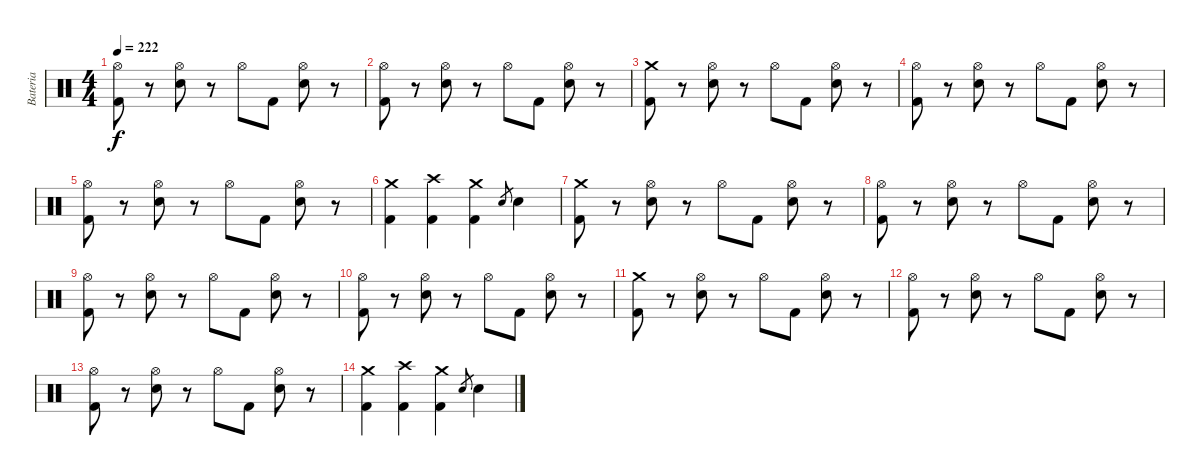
\track ("Bateria" "Bateria") {instrument percussion}
\staff {score}
\articulation defaults
\ts (4 4)
\tempo 222
\clef neutral
\ks c
("Hi-Hat (open)" "Kick (hit) 2").8{dy f} r.8 ("Hi-Hat (open)" "Electric Snare (hit)").8 r.8 "Hi-Hat (open)".8 "Kick (hit) 2".8 ("Hi-Hat (open)" "Electric Snare (hit)").8 r.8 |
("Hi-Hat (open)" "Kick (hit) 2").8 r.8 ("Hi-Hat (open)" "Electric Snare (hit)").8 r.8 "Hi-Hat (open)".8 "Kick (hit) 2".8 ("Hi-Hat (open)" "Electric Snare (hit)").8 r.8 |
("Crash medium (hit)" "Kick (hit) 2").8{volume 13} r.8 ("Hi-Hat (open)" "Electric Snare (hit)").8 r.8 "Hi-Hat (open)".8 "Kick (hit) 2".8 ("Hi-Hat (open)" "Electric Snare (hit)").8 r.8 |
("Hi-Hat (open)" "Kick (hit) 2").8 r.8 ("Hi-Hat (open)" "Electric Snare (hit)").8 r.8 "Hi-Hat (open)".8 "Kick (hit) 2".8 ("Hi-Hat (open)" "Electric Snare (hit)").8 r.8 |
("Hi-Hat (open)" "Kick (hit) 2").8 r.8 ("Hi-Hat (open)" "Electric Snare (hit)").8 r.8 "Hi-Hat (open)".8 "Kick (hit) 2".8 ("Hi-Hat (open)" "Electric Snare (hit)").8 r.8 |
("Crash medium (hit)" "Kick (hit) 2").4 ("Crash high (hit)" "Kick (hit) 2").4 ("Crash medium (hit)" "Kick (hit) 2").4 "Electric Snare (hit)".8{gr} "Electric Snare (hit)".4 |
("Crash medium (hit)" "Kick (hit) 2").8{volume 13} r.8 ("Hi-Hat (open)" "Electric Snare (hit)").8 r.8 "Hi-Hat (open)".8 "Kick (hit) 2".8 ("Hi-Hat (open)" "Electric Snare (hit)").8 r.8 |
("Hi-Hat (open)" "Kick (hit) 2").8 r.8 ("Hi-Hat (open)" "Electric Snare (hit)").8 r.8 "Hi-Hat (open)".8 "Kick (hit) 2".8 ("Hi-Hat (open)" "Electric Snare (hit)").8 r.8 |
("Hi-Hat (open)" "Kick (hit) 2").8 r.8 ("Hi-Hat (open)" "Electric Snare (hit)").8 r.8 "Hi-Hat (open)".8 "Kick (hit) 2".8 ("Hi-Hat (open)" "Electric Snare (hit)").8 r.8 |
("Hi-Hat (open)" "Kick (hit) 2").8 r.8 ("Hi-Hat (open)" "Electric Snare (hit)").8 r.8 "Hi-Hat (open)".8 "Kick (hit) 2".8 ("Hi-Hat (open)" "Electric Snare (hit)").8 r.8 |
("Crash medium (hit)" "Kick (hit) 2").8{volume 13} r.8 ("Hi-Hat (open)" "Electric Snare (hit)").8 r.8 "Hi-Hat (open)".8 "Kick (hit) 2".8 ("Hi-Hat (open)" "Electric Snare (hit)").8 r.8 |
("Hi-Hat (open)" "Kick (hit) 2").8 r.8 ("Hi-Hat (open)" "Electric Snare (hit)").8 r.8 "Hi-Hat (open)".8 "Kick (hit) 2".8 ("Hi-Hat (open)" "Electric Snare (hit)").8 r.8 |
("Hi-Hat (open)" "Kick (hit) 2").8 r.8 ("Hi-Hat (open)" "Electric Snare (hit)").8 r.8 "Hi-Hat (open)".8 "Kick (hit) 2".8 ("Hi-Hat (open)" "Electric Snare (hit)").8 r.8 |
("Crash medium (hit)" "Kick (hit) 2").4 ("Crash high (hit)" "Kick (hit) 2").4 ("Crash medium (hit)" "Kick (hit) 2").4 "Electric Snare (hit)".8{gr} "Electric Snare (hit)".4
